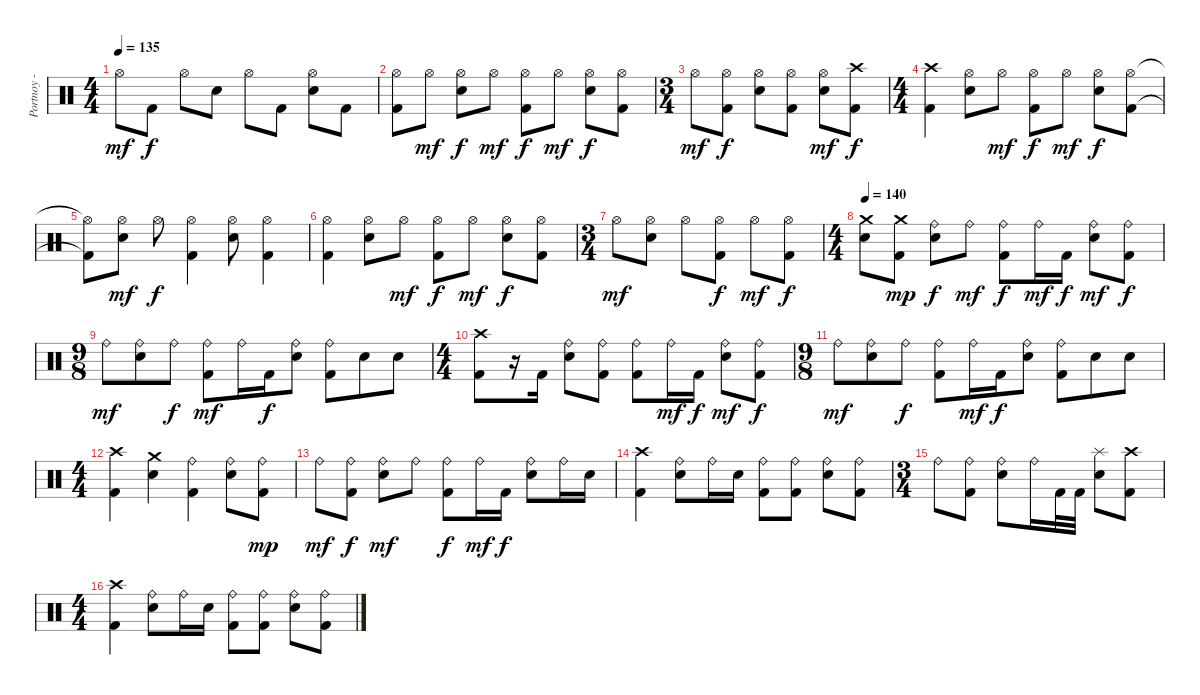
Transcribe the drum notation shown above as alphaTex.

\track ("Portnoy - Drums" "Portnoy - ") {instrument percussion}
\staff {score}
\articulation defaults
\ts (4 4)
\tempo 135
\clef neutral
\ks c "Hi-Hat (open)".8{dy mf} "Kick (hit) 2".8{dy f} "Hi-Hat (open)".8 "Electric Snare (hit)".8 "Hi-Hat (open)".8 "Kick (hit) 2".8
("Electric Snare (hit)" "Hi-Hat (open)").8 "Kick (hit) 2".8 |
("Kick (hit) 2" "Hi-Hat (open)").8 "Hi-Hat (open)".8{dy mf} ("Electric Snare (hit)" "Hi-Hat (open)").8{dy f} "Hi-Hat (open)".8{dy mf} ("Kick (hit) 2" "Hi-Hat (open)").8{dy f} "Hi-Hat (open)".8{dy mf} ("Electric Snare (hit)" "Hi-Hat (open)").8{dy f} ("Hi-Hat (open)" "Kick (hit) 2").8 |
\ts (3 4)
"Hi-Hat (open)".8{dy mf} ("Hi-Hat (open)" "Kick (hit) 2").8{dy f} ("Hi-Hat (open)" "Electric Snare (hit)").8 ("Hi-Hat (open)" "Kick (hit) 2").8 ("Electric Snare (hit)" "Hi-Hat (open)").8{dy mf} ("Kick (hit) 2" "Crash high (hit)").8{dy f} |
\ts (4 4)
("Kick (hit) 2" "Crash high (hit)").4 ("Electric Snare (hit)" "Hi-Hat (open)").8 "Hi-Hat (open)".8{dy mf} ("Kick (hit) 2" "Hi-Hat (open)").8{dy f} "Hi-Hat (open)".8{dy mf} ("Electric Snare (hit)" "Hi-Hat (open)").8{dy f} ("Kick (hit) 2" "Hi-Hat (open)").8 |
("Kick (hit) 2"{t} "Hi-Hat (open)"{t}).8 ("Electric Snare (hit)" "Hi-Hat (open)").8{dy mf} "Hi-Hat (open)".8{dy f} ("Kick (hit) 2" "Hi-Hat (open)").4 ("Electric Snare (hit)" "Hi-Hat (open)").8 ("Hi-Hat (open)" "Kick (hit) 2").4 |
("Kick (hit) 2" "Hi-Hat (open)").4 ("Electric Snare (hit)" "Hi-Hat (open)").8 "Hi-Hat (open)".8{dy mf} ("Kick (hit) 2" "Hi-Hat (open)").8{dy f} "Hi-Hat (open)".8{dy mf} ("Electric Snare (hit)" "Hi-Hat (open)").8{dy f} ("Kick (hit) 2" "Hi-Hat (open)").8 |
\ts (3 4)
"Hi-Hat (open)".8{dy mf} ("Electric Snare (hit)" "Hi-Hat (open)").8 "Hi-Hat (open)".8 ("Hi-Hat (open)" "Kick (hit) 2").8{dy f} "Hi-Hat (open)".8{dy mf} ("Hi-Hat (open)" "Kick (hit) 2").8{dy f} |
\ts (4 4)
\tempo 140
("Electric Snare (hit)" "Crash medium (hit)").8 ("Kick (hit) 2" "Crash medium (hit)").8{dy mp} ("Electric Snare (hit)" "Ride (bell)").8{dy f} "Ride (bell)".8{dy mf} ("Kick (hit) 2" "Ride (bell)").8{dy f} "Ride (bell)".16{dy mf} "Kick (hit) 2".16{dy f} ("Electric Snare (hit)" "Ride (bell)").8{dy mf} ("Kick (hit) 2" "Ride (bell)").8{dy f} |
\ts (9 8)
"Ride (bell)".8{dy mf} ("Electric Snare (hit)" "Ride (bell)").8 "Ride (bell)".8{dy f} ("Kick (hit) 2" "Ride (bell)").8{dy mf} "Ride (bell)".16 "Kick (hit) 2".16{dy f} ("Electric Snare (hit)" "Ride (bell)").8 ("Kick (hit) 2" "Ride (bell)").8 "Electric Snare (hit)".8 "Electric Snare (hit)".8 |
\ts (4 4)
("Crash high (hit)" "Kick (hit) 2").8 r.16 "Kick (hit) 2".16 ("Electric Snare (hit)" "Ride (bell)").8 ("Ride (bell)" "Kick (hit) 2").8 ("Kick (hit) 2" "Ride (bell)").8 "Ride (bell)".16{dy mf} "Kick (hit) 2".16{dy f} ("Electric Snare (hit)" "Ride (bell)").8{dy mf} ("Kick (hit) 2" "Ride (bell)").8{dy f} |
\ts (9 8)
"Ride (bell)".8{dy mf} ("Electric Snare (hit)" "Ride (bell)").8 "Ride (bell)".8{dy f} ("Ride (bell)" "Kick (hit) 2").8 "Ride (bell)".16{dy mf} "Kick (hit) 2".16{dy f} ("Electric Snare (hit)" "Ride (bell)").8 ("Kick (hit) 2" "Ride (bell)").8 "Electric Snare (hit)".8 "Electric Snare (hit)".8 |
\ts (4 4)
("Crash high (hit)" "Kick (hit) 2").4 ("Crash medium (hit)" "Electric Snare (hit)").4 ("Kick (hit) 2" "Ride (bell)").4 ("Electric Snare (hit)" "Ride (bell)").8 ("Kick (hit) 2" "Ride (bell)").8{dy mp} |
"Ride (bell)".8{dy mf} ("Kick (hit) 2" "Ride (bell)").8{dy f} ("Electric Snare (hit)" "Ride (bell)").8{dy mf} "Ride (bell)".8 ("Kick (hit) 2" "Ride (bell)").8{dy f} "Ride (bell)".16{dy mf} "Kick (hit) 2".16{dy f} ("Electric Snare (hit)" "Ride (bell)").8 "Ride (bell)".16 "Electric Snare (hit)".16 |
("Kick (hit) 2" "Crash high (hit)").4 ("Electric Snare (hit)" "Ride (bell)").8 "Ride (bell)".16 "Electric Snare (hit)".16 ("Kick (hit) 2" "Ride (bell)").8 ("Kick (hit) 2" "Ride (bell)").8 ("Electric Snare (hit)" "Ride (bell)").8 ("Kick (hit) 2" "Ride (bell)").8 |
\ts (3 4)
"Ride (bell)".8 ("Kick (hit) 2" "Ride (bell)").8 ("Electric Snare (hit)" "Ride (bell)").8 "Ride (bell)".16 "Kick (hit) 2".32 "Kick (hit) 2".32 ("Electric Snare (hit)" "Splash (hit)").8 ("Kick (hit) 2" "Crash high (hit)").8 |
\ts (4 4)
("Crash high (hit)" "Kick (hit) 2").4 ("Electric Snare (hit)" "Ride (bell)").8 "Ride (bell)".16 "Electric Snare (hit)".16 ("Kick (hit) 2" "Ride (bell)").8 ("Kick (hit) 2" "Ride (bell)").8 ("Electric Snare (hit)" "Ride (bell)").8 ("Kick (hit) 2" "Ride (bell)").8
